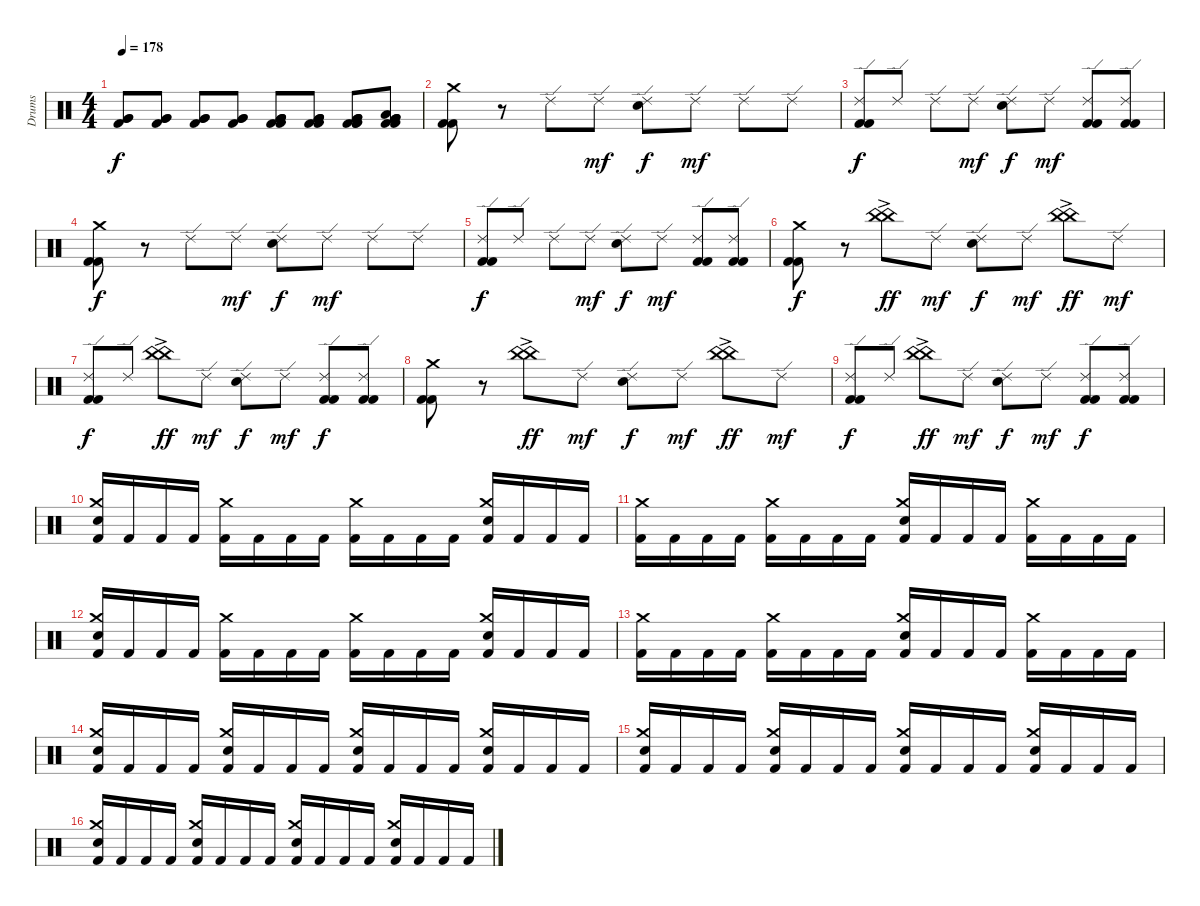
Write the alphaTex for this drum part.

\track ("Drums" "Drums") {instrument percussion}
\staff {score}
\articulation defaults
\ts (4 4)
\tempo 178
\clef neutral
\ks c
("Very Low Tom (hit)" "Very Low Tom (hit)" "Kick (hit) 2").8{dy f} ("Very Low Tom (hit)" "Very Low Tom (hit)" "Kick (hit) 2").8 ("Very Low Tom (hit)" "Very Low Tom (hit)" "Kick (hit) 2").8 ("Very Low Tom (hit)" "Very Low Tom (hit)" "Kick (hit) 2").8 ("Very Low Tom (hit)" "Very Low Tom (hit)" "Very Low Tom (hit)" "Kick (hit) 2" "Kick (hit) 2").8 ("Very Low Tom (hit)" "Very Low Tom (hit)" "Very Low Tom (hit)" "Kick (hit) 2" "Kick (hit) 2").8 ("Kick (hit) 2" "Very Low Tom (hit)" "Very Low Tom (hit)" "Very Low Tom (hit)" "Kick (hit) 2" "Kick (hit) 2").8 ("Low Floor Tom (hit)" "Very Low Tom (hit)" "Very Low Tom (hit)" "Very Low Tom (hit)" "Kick (hit) 2" "Kick (hit) 2").8 |
("Crash medium (hit)" "Kick (hit) 2" "Kick (hit) 2").8 r.8 "Ride (edge) 2".8 "Ride (edge) 2".8{dy mf} ("Ride (edge) 2" "Electric Snare (hit)").8{dy f} "Ride (edge) 2".8{dy mf} "Ride (edge) 2".8 "Ride (edge) 2".8 |
("Ride (edge) 2" "Kick (hit) 2" "Kick (hit) 2").8{dy f} "Ride (edge) 2".8 "Ride (edge) 2".8 "Ride (edge) 2".8{dy mf} ("Ride (edge) 2" "Electric Snare (hit)").8{dy f} "Ride (edge) 2".8{dy mf} ("Ride (edge) 2" "Kick (hit) 2" "Kick (hit) 2").8 ("Ride (edge) 2" "Kick (hit) 2" "Kick (hit) 2").8 |
("Crash medium (hit)" "Kick (hit) 2" "Kick (hit) 2").8{dy f} r.8 "Ride (edge) 2".8 "Ride (edge) 2".8{dy mf} ("Ride (edge) 2" "Electric Snare (hit)").8{dy f} "Ride (edge) 2".8{dy mf} "Ride (edge) 2".8 "Ride (edge) 2".8 |
("Ride (edge) 2" "Kick (hit) 2" "Kick (hit) 2").8{dy f} "Ride (edge) 2".8 "Ride (edge) 2".8 "Ride (edge) 2".8{dy mf} ("Ride (edge) 2" "Electric Snare (hit)").8{dy f} "Ride (edge) 2".8{dy mf} ("Ride (edge) 2" "Kick (hit) 2" "Kick (hit) 2").8 ("Ride (edge) 2" "Kick (hit) 2" "Kick (hit) 2").8 |
("Crash medium (hit)" "Kick (hit) 2" "Kick (hit) 2").8{dy f} r.8 ("China (hit)" "China (hit)"{ac}).8{dy ff} "Ride (edge) 2".8{dy mf} ("Ride (edge) 2" "Electric Snare (hit)").8{dy f} "Ride (edge) 2".8{dy mf} ("China (hit)" "China (hit)"{ac}).8{dy ff} "Ride (edge) 2".8{dy mf} |
("Ride (edge) 2" "Kick (hit) 2" "Kick (hit) 2").8{dy f} "Ride (edge) 2".8 ("China (hit)" "China (hit)"{ac}).8{dy ff} "Ride (edge) 2".8{dy mf} ("Ride (edge) 2" "Electric Snare (hit)").8{dy f} "Ride (edge) 2".8{dy mf} ("Ride (edge) 2" "Kick (hit) 2" "Kick (hit) 2").8{dy f} ("Ride (edge) 2" "Kick (hit) 2" "Kick (hit) 2").8 |
("Crash medium (hit)" "Kick (hit) 2" "Kick (hit) 2").8 r.8 ("China (hit)" "China (hit)"{ac}).8{dy ff} "Ride (edge) 2".8{dy mf} ("Ride (edge) 2" "Electric Snare (hit)").8{dy f} "Ride (edge) 2".8{dy mf} ("China (hit)" "China (hit)"{ac}).8{dy ff} "Ride (edge) 2".8{dy mf} |
("Ride (edge) 2" "Kick (hit) 2" "Kick (hit) 2").8{dy f} "Ride (edge) 2".8 ("China (hit)" "China (hit)"{ac}).8{dy ff} "Ride (edge) 2".8{dy mf} ("Ride (edge) 2" "Electric Snare (hit)").8{dy f} "Ride (edge) 2".8{dy mf} ("Ride (edge) 2" "Kick (hit) 2" "Kick (hit) 2").8{dy f} ("Ride (edge) 2" "Kick (hit) 2" "Kick (hit) 2").8 |
("Crash medium (hit)" "Electric Snare (hit)" "Kick (hit) 2").16 "Kick (hit) 2".16 "Kick (hit) 2".16 "Kick (hit) 2".16 ("Crash medium (hit)" "Kick (hit) 2").16 "Kick (hit) 2".16 "Kick (hit) 2".16 "Kick (hit) 2".16 ("Crash medium (hit)" "Kick (hit) 2").16 "Kick (hit) 2".16 "Kick (hit) 2".16 "Kick (hit) 2".16 ("Crash medium (hit)" "Electric Snare (hit)" "Kick (hit) 2").16 "Kick (hit) 2".16 "Kick (hit) 2".16 "Kick (hit) 2".16 |
("Crash medium (hit)" "Kick (hit) 2").16 "Kick (hit) 2".16 "Kick (hit) 2".16 "Kick (hit) 2".16 ("Crash medium (hit)" "Kick (hit) 2").16 "Kick (hit) 2".16 "Kick (hit) 2".16 "Kick (hit) 2".16 ("Crash medium (hit)" "Electric Snare (hit)" "Kick (hit) 2").16 "Kick (hit) 2".16 "Kick (hit) 2".16 "Kick (hit) 2".16 ("Crash medium (hit)" "Kick (hit) 2").16 "Kick (hit) 2".16 "Kick (hit) 2".16 "Kick (hit) 2".16 |
("Crash medium (hit)" "Electric Snare (hit)" "Kick (hit) 2").16 "Kick (hit) 2".16 "Kick (hit) 2".16 "Kick (hit) 2".16 ("Crash medium (hit)" "Kick (hit) 2").16 "Kick (hit) 2".16 "Kick (hit) 2".16 "Kick (hit) 2".16 ("Crash medium (hit)" "Kick (hit) 2").16 "Kick (hit) 2".16 "Kick (hit) 2".16 "Kick (hit) 2".16 ("Crash medium (hit)" "Electric Snare (hit)" "Kick (hit) 2").16 "Kick (hit) 2".16 "Kick (hit) 2".16 "Kick (hit) 2".16 |
("Crash medium (hit)" "Kick (hit) 2").16 "Kick (hit) 2".16 "Kick (hit) 2".16 "Kick (hit) 2".16 ("Crash medium (hit)" "Kick (hit) 2").16 "Kick (hit) 2".16 "Kick (hit) 2".16 "Kick (hit) 2".16 ("Crash medium (hit)" "Electric Snare (hit)" "Kick (hit) 2").16 "Kick (hit) 2".16 "Kick (hit) 2".16 "Kick (hit) 2".16 ("Crash medium (hit)" "Kick (hit) 2").16 "Kick (hit) 2".16 "Kick (hit) 2".16 "Kick (hit) 2".16 |
("Crash medium (hit)" "Electric Snare (hit)" "Kick (hit) 2").16 "Kick (hit) 2".16 "Kick (hit) 2".16 "Kick (hit) 2".16 ("Crash medium (hit)" "Electric Snare (hit)" "Kick (hit) 2").16 "Kick (hit) 2".16 "Kick (hit) 2".16 "Kick (hit) 2".16 ("Crash medium (hit)" "Electric Snare (hit)" "Kick (hit) 2").16 "Kick (hit) 2".16 "Kick (hit) 2".16 "Kick (hit) 2".16 ("Crash medium (hit)" "Electric Snare (hit)" "Kick (hit) 2").16 "Kick (hit) 2".16 "Kick (hit) 2".16 "Kick (hit) 2".16 |
("Crash medium (hit)" "Electric Snare (hit)" "Kick (hit) 2").16 "Kick (hit) 2".16 "Kick (hit) 2".16 "Kick (hit) 2".16 ("Crash medium (hit)" "Electric Snare (hit)" "Kick (hit) 2").16 "Kick (hit) 2".16 "Kick (hit) 2".16 "Kick (hit) 2".16 ("Crash medium (hit)" "Electric Snare (hit)" "Kick (hit) 2").16 "Kick (hit) 2".16 "Kick (hit) 2".16 "Kick (hit) 2".16 ("Crash medium (hit)" "Electric Snare (hit)" "Kick (hit) 2").16 "Kick (hit) 2".16 "Kick (hit) 2".16 "Kick (hit) 2".16 |
("Crash medium (hit)" "Electric Snare (hit)" "Kick (hit) 2").16 "Kick (hit) 2".16 "Kick (hit) 2".16 "Kick (hit) 2".16 ("Crash medium (hit)" "Electric Snare (hit)" "Kick (hit) 2").16 "Kick (hit) 2".16 "Kick (hit) 2".16 "Kick (hit) 2".16 ("Crash medium (hit)" "Electric Snare (hit)" "Kick (hit) 2").16 "Kick (hit) 2".16 "Kick (hit) 2".16 "Kick (hit) 2".16 ("Crash medium (hit)" "Electric Snare (hit)" "Kick (hit) 2").16 "Kick (hit) 2".16 "Kick (hit) 2".16 "Kick (hit) 2".16
